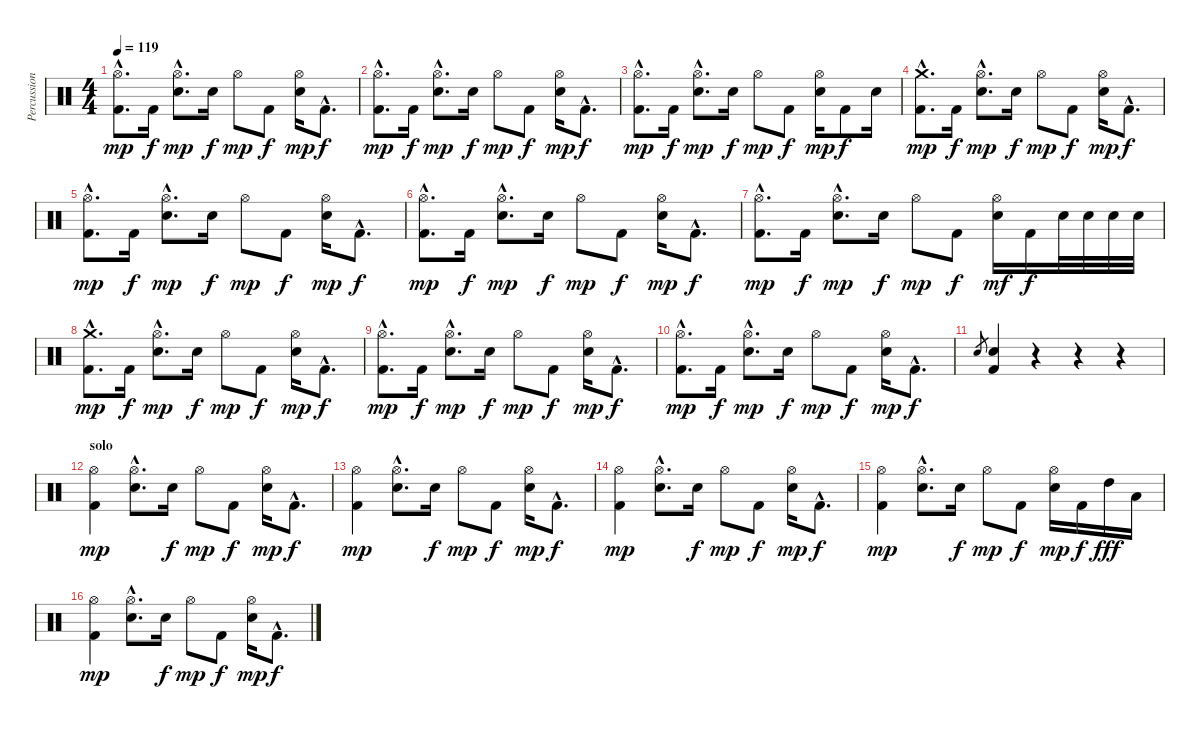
\track ("Percussions" "Percussion") {instrument percussion}
\staff {score}
\articulation defaults
\ts (4 4)
\tempo 119
\clef neutral
\ks c
("Hi-Hat (open)"{hac} "Kick (hit) 2"{hac}).8{d dy mp} "Kick (hit) 2".16{dy f} ("Hi-Hat (open)"{hac} "Snare (hit) 2"{hac}).8{d dy mp} "Electric Snare (hit)".16{dy f} "Hi-Hat (open)".8{dy mp} "Kick (hit) 2".8{dy f} ("Hi-Hat (open)" "Snare (hit) 2").16{dy mp} "Kick (hit) 2"{hac}.8{d dy f} |
("Hi-Hat (open)"{hac} "Kick (hit) 2"{hac}).8{d dy mp} "Kick (hit) 2".16{dy f} ("Hi-Hat (open)"{hac} "Snare (hit) 2"{hac}).8{d dy mp} "Electric Snare (hit)".16{dy f} "Hi-Hat (open)".8{dy mp} "Kick (hit) 2".8{dy f} ("Hi-Hat (open)" "Snare (hit) 2").16{dy mp} "Kick (hit) 2"{hac}.8{d dy f} |
("Hi-Hat (open)"{hac} "Kick (hit) 2"{hac}).8{d dy mp} "Kick (hit) 2".16{dy f} ("Hi-Hat (open)"{hac} "Snare (hit) 2"{hac}).8{d dy mp} "Electric Snare (hit)".16{dy f} "Hi-Hat (open)".8{dy mp} "Kick (hit) 2".8{dy f} ("Hi-Hat (open)" "Snare (hit) 2").16{dy mp} "Kick (hit) 2".8{dy f} "Snare (hit) 2".16 |
("Crash medium (hit)"{hac} "Kick (hit) 2"{hac}).8{d dy mp} "Kick (hit) 2".16{dy f} ("Hi-Hat (open)"{hac} "Snare (hit) 2"{hac}).8{d dy mp} "Electric Snare (hit)".16{dy f} "Hi-Hat (open)".8{dy mp} "Kick (hit) 2".8{dy f} ("Hi-Hat (open)" "Snare (hit) 2").16{dy mp} "Kick (hit) 2"{hac}.8{d dy f} |
("Hi-Hat (open)"{hac} "Kick (hit) 2"{hac}).8{d dy mp} "Kick (hit) 2".16{dy f} ("Hi-Hat (open)"{hac} "Snare (hit) 2"{hac}).8{d dy mp} "Electric Snare (hit)".16{dy f} "Hi-Hat (open)".8{dy mp} "Kick (hit) 2".8{dy f} ("Hi-Hat (open)" "Snare (hit) 2").16{dy mp} "Kick (hit) 2"{hac}.8{d dy f} |
("Hi-Hat (open)"{hac} "Kick (hit) 2"{hac}).8{d dy mp} "Kick (hit) 2".16{dy f} ("Hi-Hat (open)"{hac} "Snare (hit) 2"{hac}).8{d dy mp} "Electric Snare (hit)".16{dy f} "Hi-Hat (open)".8{dy mp} "Kick (hit) 2".8{dy f} ("Hi-Hat (open)" "Snare (hit) 2").16{dy mp} "Kick (hit) 2"{hac}.8{d dy f} |
("Hi-Hat (open)"{hac} "Kick (hit) 2"{hac}).8{d dy mp} "Kick (hit) 2".16{dy f} ("Hi-Hat (open)"{hac} "Snare (hit) 2"{hac}).8{d dy mp} "Electric Snare (hit)".16{dy f} "Hi-Hat (open)".8{dy mp} "Kick (hit) 2".8{dy f} ("Hi-Hat (open)" "Snare (hit) 2").16{dy mf} "Kick (hit) 2".16{dy f} "Snare (hit) 2".32 "Snare (hit) 2".32 "Snare (hit) 2".32 "Snare (hit) 2".32 |
("Crash medium (hit)"{hac} "Kick (hit) 2"{hac}).8{d dy mp} "Kick (hit) 2".16{dy f} ("Hi-Hat (open)"{hac} "Snare (hit) 2"{hac}).8{d dy mp} "Electric Snare (hit)".16{dy f} "Hi-Hat (open)".8{dy mp} "Kick (hit) 2".8{dy f} ("Hi-Hat (open)" "Snare (hit) 2").16{dy mp} "Kick (hit) 2"{hac}.8{d dy f} |
("Hi-Hat (open)"{hac} "Kick (hit) 2"{hac}).8{d dy mp} "Kick (hit) 2".16{dy f} ("Hi-Hat (open)"{hac} "Snare (hit) 2"{hac}).8{d dy mp} "Electric Snare (hit)".16{dy f} "Hi-Hat (open)".8{dy mp} "Kick (hit) 2".8{dy f} ("Hi-Hat (open)" "Snare (hit) 2").16{dy mp} "Kick (hit) 2"{hac}.8{d dy f} |
("Hi-Hat (open)"{hac} "Kick (hit) 2"{hac}).8{d dy mp} "Kick (hit) 2".16{dy f} ("Hi-Hat (open)"{hac} "Snare (hit) 2"{hac}).8{d dy mp} "Electric Snare (hit)".16{dy f} "Hi-Hat (open)".8{dy mp} "Kick (hit) 2".8{dy f} ("Hi-Hat (open)" "Snare (hit) 2").16{dy mp} "Kick (hit) 2"{hac}.8{d dy f} |
"Snare (hit) 2".8{gr} ("Snare (hit) 2" "Kick (hit) 2").4 r.4 r.4 r.4 |
\section ("" "solo")
("Hi-Hat (open)" "Kick (hit) 2").4{dy mp} ("Hi-Hat (open)"{hac} "Snare (hit) 2"{hac}).8{d} "Snare (hit) 2".16{dy f} "Hi-Hat (open)".8{dy mp} "Kick (hit) 2".8{dy f} ("Hi-Hat (open)" "Snare (hit) 2").16{dy mp} "Kick (hit) 2"{hac}.8{d dy f} |
("Hi-Hat (open)" "Kick (hit) 2").4{dy mp} ("Hi-Hat (open)"{hac} "Snare (hit) 2"{hac}).8{d} "Snare (hit) 2".16{dy f} "Hi-Hat (open)".8{dy mp} "Kick (hit) 2".8{dy f} ("Hi-Hat (open)" "Snare (hit) 2").16{dy mp} "Kick (hit) 2"{hac}.8{d dy f} |
("Hi-Hat (open)" "Kick (hit) 2").4{dy mp} ("Hi-Hat (open)"{hac} "Snare (hit) 2"{hac}).8{d} "Snare (hit) 2".16{dy f} "Hi-Hat (open)".8{dy mp} "Kick (hit) 2".8{dy f} ("Hi-Hat (open)" "Snare (hit) 2").16{dy mp} "Kick (hit) 2"{hac}.8{d dy f} |
("Hi-Hat (open)" "Kick (hit) 2").4{dy mp} ("Hi-Hat (open)"{hac} "Snare (hit) 2"{hac}).8{d} "Snare (hit) 2".16{dy f} "Hi-Hat (open)".8{dy mp} "Kick (hit) 2".8{dy f} ("Hi-Hat (open)" "Snare (hit) 2").16{dy mp} "Kick (hit) 2".16{dy f} "High Tom (hit)".16{dy fff} "Low Tom (hit)".16 |
("Hi-Hat (open)" "Kick (hit) 2").4{dy mp} ("Hi-Hat (open)"{hac} "Snare (hit) 2"{hac}).8{d} "Snare (hit) 2".16{dy f} "Hi-Hat (open)".8{dy mp} "Kick (hit) 2".8{dy f} ("Hi-Hat (open)" "Snare (hit) 2").16{dy mp} "Kick (hit) 2"{hac}.8{d dy f}
